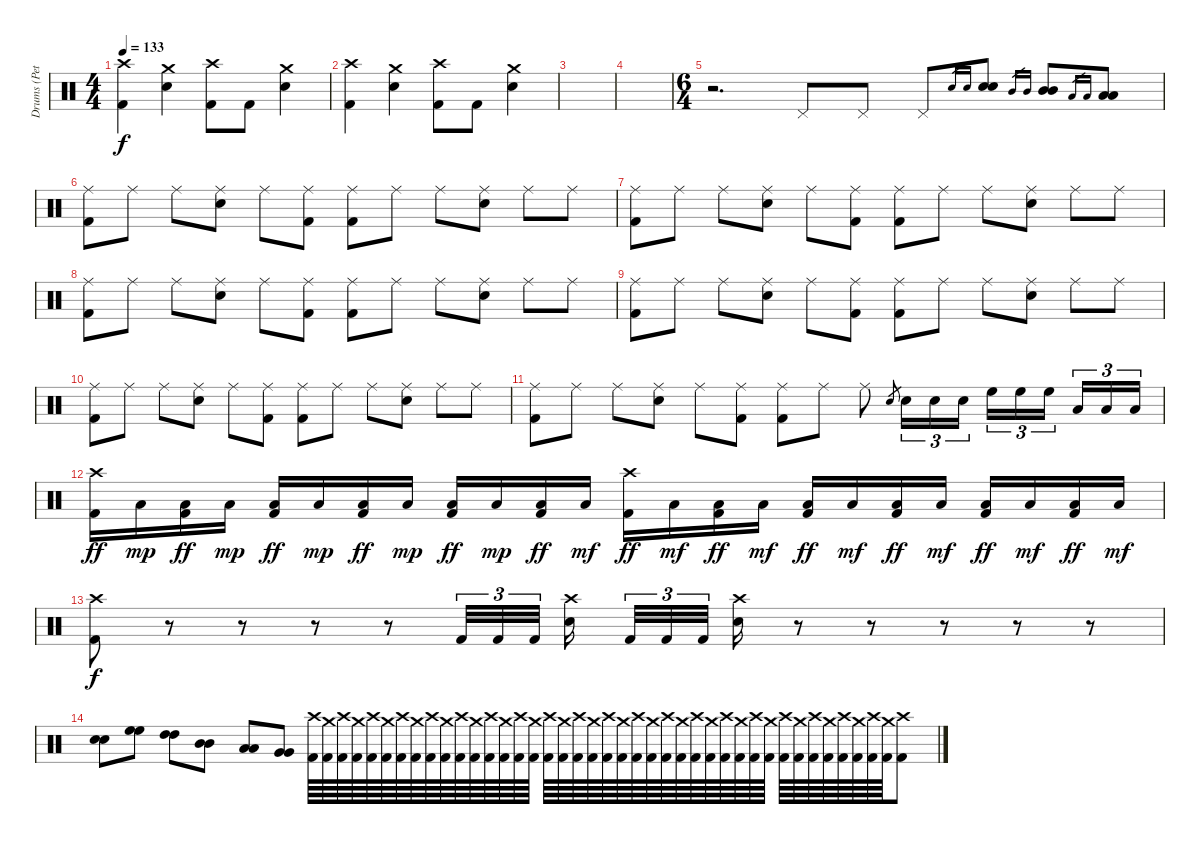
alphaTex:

\track ("Drums (Peter)" "Drums (Pet") {instrument percussion}
\staff {score}
\articulation defaults
\ts (4 4)
\tempo 133
\clef neutral
\ks c
("Crash high (hit)" "Kick (hit) 2").4{dy f} ("Crash medium (hit)" "Electric Snare (hit)").4 ("Crash high (hit)" "Kick (hit) 2").8 "Kick (hit) 2".8 ("Crash medium (hit)" "Electric Snare (hit)").4 |
("Crash high (hit)" "Kick (hit) 2").4 ("Crash medium (hit)" "Electric Snare (hit)").4 ("Crash high (hit)" "Kick (hit) 2").8 "Kick (hit) 2".8 ("Crash medium (hit)" "Electric Snare (hit)").4 |
|
|
\ts (6 4)
r.2{d} "Pedal Hi-Hat (hit)".8 "Pedal Hi-Hat (hit)".8 "Pedal Hi-Hat (hit)".8 "Electric Snare (hit)".16{gr} "Electric Snare (hit)".16{gr} ("Electric Snare (hit)" "Electric Snare (hit)").8 "Mid Tom (hit)".16{gr} "Mid Tom (hit)".16{gr} ("Mid Tom (hit)" "Mid Tom (hit)").8 "Low Tom (hit)".16{gr} "Low Tom (hit)".16{gr} ("Low Tom (hit)" "Low Tom (hit)").8 |
("Ride (middle)" "Kick (hit) 2").8 "Ride (middle)".8 "Ride (middle)".8 ("Ride (middle)" "Electric Snare (hit)").8 "Ride (middle)".8 ("Ride (middle)" "Kick (hit) 2").8 ("Ride (middle)" "Kick (hit) 2").8 "Ride (middle)".8 "Ride (middle)".8 ("Ride (middle)" "Electric Snare (hit)").8 "Ride (middle)".8 "Ride (middle)".8 |
("Ride (middle)" "Kick (hit) 2").8 "Ride (middle)".8 "Ride (middle)".8 ("Ride (middle)" "Electric Snare (hit)").8 "Ride (middle)".8 ("Ride (middle)" "Kick (hit) 2").8 ("Ride (middle)" "Kick (hit) 2").8 "Ride (middle)".8 "Ride (middle)".8 ("Ride (middle)" "Electric Snare (hit)").8 "Ride (middle)".8 "Ride (middle)".8 |
("Ride (middle)" "Kick (hit) 2").8 "Ride (middle)".8 "Ride (middle)".8 ("Ride (middle)" "Electric Snare (hit)").8 "Ride (middle)".8 ("Ride (middle)" "Kick (hit) 2").8 ("Ride (middle)" "Kick (hit) 2").8 "Ride (middle)".8 "Ride (middle)".8 ("Ride (middle)" "Electric Snare (hit)").8 "Ride (middle)".8 "Ride (middle)".8 |
("Ride (middle)" "Kick (hit) 2").8 "Ride (middle)".8 "Ride (middle)".8 ("Ride (middle)" "Electric Snare (hit)").8 "Ride (middle)".8 ("Ride (middle)" "Kick (hit) 2").8 ("Ride (middle)" "Kick (hit) 2").8 "Ride (middle)".8 "Ride (middle)".8 ("Ride (middle)" "Electric Snare (hit)").8 "Ride (middle)".8 "Ride (middle)".8 |
("Ride (middle)" "Kick (hit) 2").8 "Ride (middle)".8 "Ride (middle)".8 ("Ride (middle)" "Electric Snare (hit)").8 "Ride (middle)".8 ("Ride (middle)" "Kick (hit) 2").8 ("Ride (middle)" "Kick (hit) 2").8 "Ride (middle)".8 "Ride (middle)".8 ("Ride (middle)" "Electric Snare (hit)").8 "Ride (middle)".8 "Ride (middle)".8 |
("Ride (middle)" "Kick (hit) 2").8 "Ride (middle)".8 "Ride (middle)".8 ("Ride (middle)" "Electric Snare (hit)").8 "Ride (middle)".8 ("Ride (middle)" "Kick (hit) 2").8 ("Ride (middle)" "Kick (hit) 2").8 "Ride (middle)".8 "Ride (middle)".8 "Electric Snare (hit)".8{gr} "Electric Snare (hit)".16{tu (3 2)} "Electric Snare (hit)".16{tu (3 2)} "Electric Snare (hit)".16{tu (3 2) beam splitsecondary} "High Floor Tom (hit)".16{tu (3 2)} "High Floor Tom (hit)".16{tu (3 2)} "High Floor Tom (hit)".16{tu (3 2) beam splitsecondary} "Low Tom (hit)".16{tu (3 2)} "Low Tom (hit)".16{tu (3 2)} "Low Tom (hit)".16{tu (3 2)} |
("Crash high (hit)" "Kick (hit) 2").16{dy ff} "Low Floor Tom (hit)".16{dy mp} ("Kick (hit) 2" "Low Floor Tom (hit)").16{dy ff} "Low Floor Tom (hit)".16{dy mp} ("Kick (hit) 2" "Low Floor Tom (hit)").16{dy ff} "Low Floor Tom (hit)".16{dy mp} ("Kick (hit) 2" "Low Floor Tom (hit)").16{dy ff} "Low Floor Tom (hit)".16{dy mp} ("Kick (hit) 2" "Low Floor Tom (hit)").16{dy ff} "Low Floor Tom (hit)".16{dy mp} ("Kick (hit) 2" "Low Floor Tom (hit)").16{dy ff} "Low Floor Tom (hit)".16{dy mf} ("Crash high (hit)" "Kick (hit) 2").16{dy ff} "Low Floor Tom (hit)".16{dy mf} ("Kick (hit) 2" "Low Floor Tom (hit)").16{dy ff} "Low Floor Tom (hit)".16{dy mf} ("Kick (hit) 2" "Low Floor Tom (hit)").16{dy ff} "Low Floor Tom (hit)".16{dy mf} ("Kick (hit) 2" "Low Floor Tom (hit)").16{dy ff} "Low Floor Tom (hit)".16{dy mf} ("Kick (hit) 2" "Low Floor Tom (hit)").16{dy ff} "Low Floor Tom (hit)".16{dy mf} ("Kick (hit) 2" "Low Floor Tom (hit)").16{dy ff} "Low Floor Tom (hit)".16{dy mf} |
("Crash high (hit)" "Kick (hit) 2").8{dy f} r.8 r.8 r.8 r.8 "Kick (hit) 2".32{tu (3 2)} "Kick (hit) 2".32{tu (3 2)} "Kick (hit) 2".32{tu (3 2) beam splitsecondary} ("Crash high (hit)" "Electric Snare (hit)").16 "Kick (hit) 2".32{tu (3 2)} "Kick (hit) 2".32{tu (3 2)} "Kick (hit) 2".32{tu (3 2) beam splitsecondary} ("Crash high (hit)" "Electric Snare (hit)").16 r.8 r.8 r.8 r.8 r.8 |
("Electric Snare (hit)" "Electric Snare (hit)").8 ("High Floor Tom (hit)" "High Floor Tom (hit)").8 ("High Tom (hit)" "High Tom (hit)").8 ("Mid Tom (hit)" "Mid Tom (hit)").8 ("Low Tom (hit)" "Low Tom (hit)").8 ("Very Low Tom (hit)" "Very Low Tom (hit)").8 ("Crash high (hit)" "Kick (hit) 2").64 ("Crash medium (hit)" "Kick (hit) 2").64 ("Crash high (hit)" "Kick (hit) 2").64 ("Crash medium (hit)" "Kick (hit) 2").64 ("Crash high (hit)" "Kick (hit) 2").64 ("Crash medium (hit)" "Kick (hit) 2").64 ("Crash high (hit)" "Kick (hit) 2").64 ("Crash medium (hit)" "Kick (hit) 2").64 ("Crash high (hit)" "Kick (hit) 2").64 ("Crash medium (hit)" "Kick (hit) 2").64 ("Crash high (hit)" "Kick (hit) 2").64 ("Crash medium (hit)" "Kick (hit) 2").64 ("Crash high (hit)" "Kick (hit) 2").64 ("Crash medium (hit)" "Kick (hit) 2").64 ("Crash high (hit)" "Kick (hit) 2").64 ("Crash medium (hit)" "Kick (hit) 2").64 ("Crash high (hit)" "Kick (hit) 2").64 ("Crash medium (hit)" "Kick (hit) 2").64 ("Crash high (hit)" "Kick (hit) 2").64 ("Crash medium (hit)" "Kick (hit) 2").64 ("Crash high (hit)" "Kick (hit) 2").64 ("Crash medium (hit)" "Kick (hit) 2").64 ("Crash high (hit)" "Kick (hit) 2").64 ("Crash medium (hit)" "Kick (hit) 2").64 ("Crash high (hit)" "Kick (hit) 2").64 ("Crash medium (hit)" "Kick (hit) 2").64 ("Crash high (hit)" "Kick (hit) 2").64 ("Crash medium (hit)" "Kick (hit) 2").64 ("Crash high (hit)" "Kick (hit) 2").64 ("Crash medium (hit)" "Kick (hit) 2").64 ("Crash high (hit)" "Kick (hit) 2").64 ("Crash medium (hit)" "Kick (hit) 2").64 ("Crash high (hit)" "Kick (hit) 2").64 ("Crash medium (hit)" "Kick (hit) 2").64 ("Crash high (hit)" "Kick (hit) 2").64 ("Crash medium (hit)" "Kick (hit) 2").64 ("Crash high (hit)" "Kick (hit) 2").64 ("Crash medium (hit)" "Kick (hit) 2").64 ("Crash high (hit)" "Kick (hit) 2").64 ("Crash medium (hit)" "Kick (hit) 2").64 ("Crash high (hit)" "Kick (hit) 2").8
